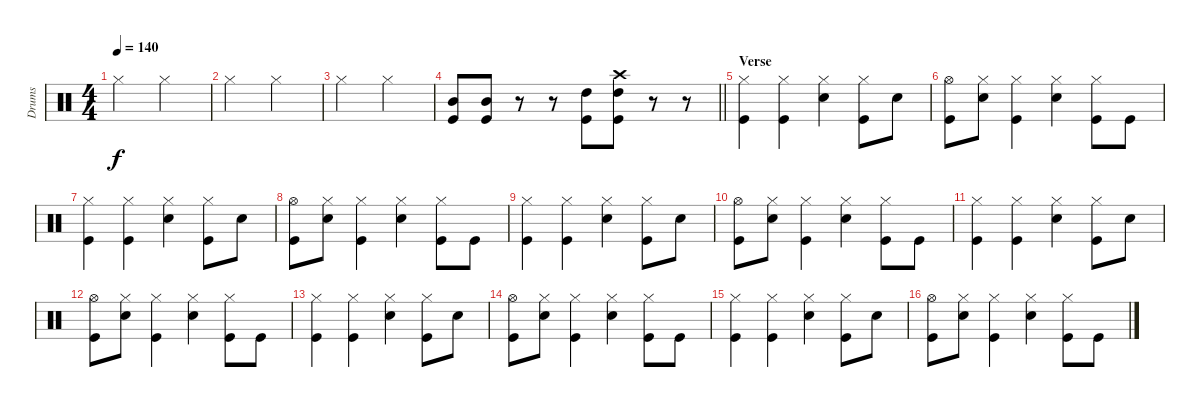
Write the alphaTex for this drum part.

\track ("Drums" "Drums") {instrument percussion}
\staff {score}
\articulation defaults
\ts (4 4)
\tempo 140
\clef neutral
\ks c "Hi-Hat (closed)".2{dy f} "Hi-Hat (closed)".2
|
"Hi-Hat (closed)".2 "Hi-Hat (closed)".2 |
"Hi-Hat (closed)".2 "Hi-Hat (closed)".2 |
\barLineRight lightlight
("Mid Tom (hit)" "Kick (hit)").8 ("Mid Tom (hit)" "Kick (hit)").8 r.8 r.8 ("High Tom (hit)" "Kick (hit)").8 ("High Tom (hit)" "Kick (hit)" "Crash high (hit)").8 r.8 r.8 |
\section ("" "Verse")
("Hi-Hat (closed)" "Kick (hit)").4 ("Hi-Hat (closed)" "Kick (hit)").4 ("Hi-Hat (closed)" "Snare (hit) 2").4 ("Hi-Hat (closed)" "Kick (hit)").8 "Snare (hit) 2".8 |
("Hi-Hat (open)" "Kick (hit)").8 ("Hi-Hat (closed)" "Snare (hit) 2").8 ("Hi-Hat (closed)" "Kick (hit)").4 ("Hi-Hat (closed)" "Snare (hit) 2").4 ("Hi-Hat (closed)" "Kick (hit)").8 "Kick (hit)".8 |
("Hi-Hat (closed)" "Kick (hit)").4 ("Hi-Hat (closed)" "Kick (hit)").4 ("Hi-Hat (closed)" "Snare (hit) 2").4 ("Hi-Hat (closed)" "Kick (hit)").8 "Snare (hit) 2".8 |
("Hi-Hat (open)" "Kick (hit)").8 ("Hi-Hat (closed)" "Snare (hit) 2").8 ("Hi-Hat (closed)" "Kick (hit)").4 ("Hi-Hat (closed)" "Snare (hit) 2").4 ("Hi-Hat (closed)" "Kick (hit)").8 "Kick (hit)".8 |
("Hi-Hat (closed)" "Kick (hit)").4 ("Hi-Hat (closed)" "Kick (hit)").4 ("Hi-Hat (closed)" "Snare (hit) 2").4 ("Hi-Hat (closed)" "Kick (hit)").8 "Snare (hit) 2".8 |
("Hi-Hat (open)" "Kick (hit)").8 ("Hi-Hat (closed)" "Snare (hit) 2").8 ("Hi-Hat (closed)" "Kick (hit)").4 ("Hi-Hat (closed)" "Snare (hit) 2").4 ("Hi-Hat (closed)" "Kick (hit)").8 "Kick (hit)".8 |
("Hi-Hat (closed)" "Kick (hit)").4 ("Hi-Hat (closed)" "Kick (hit)").4 ("Hi-Hat (closed)" "Snare (hit) 2").4 ("Hi-Hat (closed)" "Kick (hit)").8 "Snare (hit) 2".8 |
("Hi-Hat (open)" "Kick (hit)").8 ("Hi-Hat (closed)" "Snare (hit) 2").8 ("Hi-Hat (closed)" "Kick (hit)").4 ("Hi-Hat (closed)" "Snare (hit) 2").4 ("Hi-Hat (closed)" "Kick (hit)").8 "Kick (hit)".8 |
("Hi-Hat (closed)" "Kick (hit)").4 ("Hi-Hat (closed)" "Kick (hit)").4 ("Hi-Hat (closed)" "Snare (hit) 2").4 ("Hi-Hat (closed)" "Kick (hit)").8 "Snare (hit) 2".8 |
("Hi-Hat (open)" "Kick (hit)").8 ("Hi-Hat (closed)" "Snare (hit) 2").8 ("Hi-Hat (closed)" "Kick (hit)").4 ("Hi-Hat (closed)" "Snare (hit) 2").4 ("Hi-Hat (closed)" "Kick (hit)").8 "Kick (hit)".8 |
("Hi-Hat (closed)" "Kick (hit)").4 ("Hi-Hat (closed)" "Kick (hit)").4 ("Hi-Hat (closed)" "Snare (hit) 2").4 ("Hi-Hat (closed)" "Kick (hit)").8 "Snare (hit) 2".8 |
("Hi-Hat (open)" "Kick (hit)").8 ("Hi-Hat (closed)" "Snare (hit) 2").8 ("Hi-Hat (closed)" "Kick (hit)").4 ("Hi-Hat (closed)" "Snare (hit) 2").4 ("Hi-Hat (closed)" "Kick (hit)").8 "Kick (hit)".8
